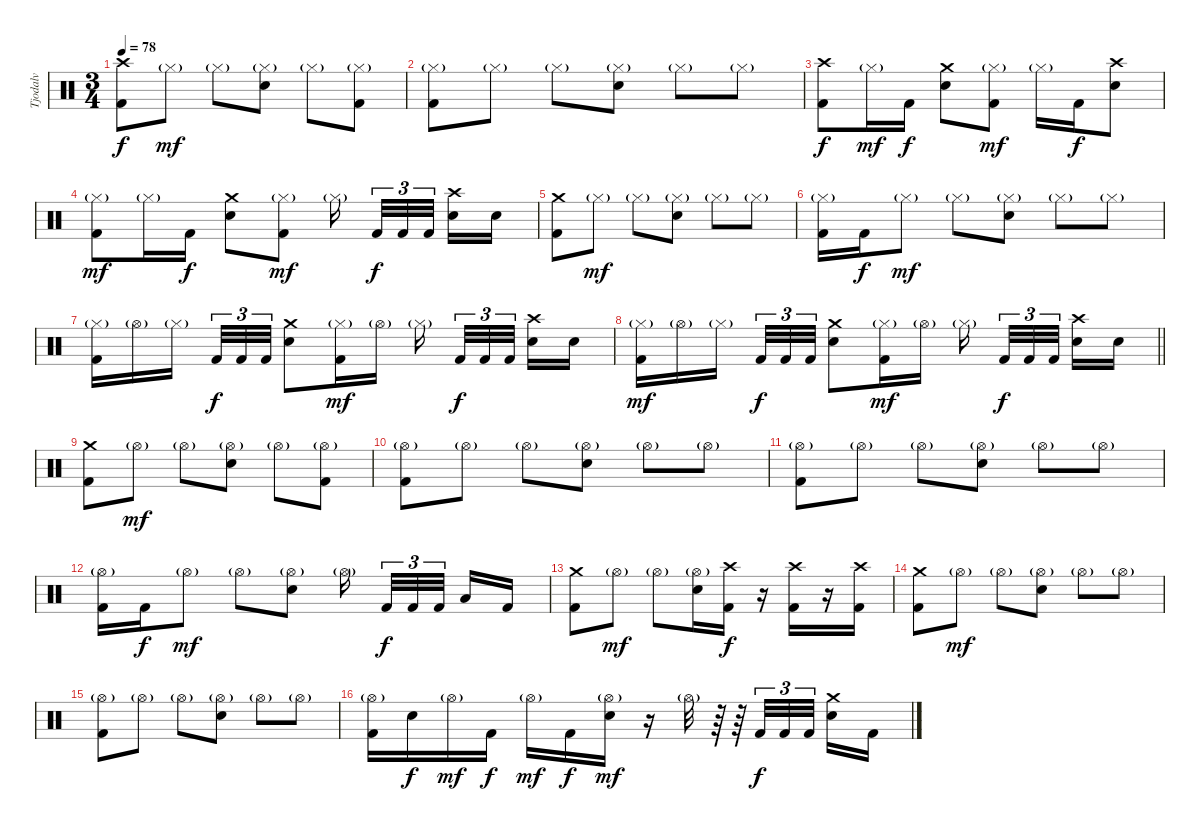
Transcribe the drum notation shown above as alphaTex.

\track ("Tjodalv" "Tjodalv") {instrument percussion}
\staff {score}
\articulation defaults
\ts (3 4)
\tempo 78
\clef neutral
\ks c
("Crash high (hit)" "Kick (hit) 2").8{dy f} "Hi-Hat (closed)"{g}.8{dy mf} "Hi-Hat (closed)"{g}.8 ("Hi-Hat (closed)"{g} "Electric Snare (hit)").8 "Hi-Hat (closed)"{g}.8 ("Hi-Hat (closed)"{g} "Kick (hit) 2").8 |
("Hi-Hat (closed)"{g} "Kick (hit) 2").8 "Hi-Hat (closed)"{g}.8 "Hi-Hat (closed)"{g}.8 ("Hi-Hat (closed)"{g} "Electric Snare (hit)").8 "Hi-Hat (closed)"{g}.8 "Hi-Hat (closed)"{g}.8 |
("Crash high (hit)" "Kick (hit) 2").8{dy f} "Hi-Hat (closed)"{g}.16{dy mf} "Kick (hit) 2".16{dy f} ("Crash medium (hit)" "Electric Snare (hit)").8 ("Hi-Hat (closed)"{g} "Kick (hit) 2").8{dy mf} "Hi-Hat (closed)"{g}.16 "Kick (hit) 2".16{dy f} ("Crash high (hit)" "Electric Snare (hit)").8 |
("Hi-Hat (closed)"{g} "Kick (hit) 2").8{dy mf} "Hi-Hat (closed)"{g}.16 "Kick (hit) 2".16{dy f} ("Crash medium (hit)" "Electric Snare (hit)").8 ("Hi-Hat (closed)"{g} "Kick (hit) 2").8{dy mf} "Hi-Hat (closed)"{g}.16{beam splitsecondary} "Kick (hit) 2".32{tu (3 2) dy f} "Kick (hit) 2".32{tu (3 2)} "Kick (hit) 2".32{tu (3 2) beam splitsecondary} ("Crash high (hit)" "Electric Snare (hit)").16 "Electric Snare (hit)".16 |
("Crash medium (hit)" "Kick (hit) 2").8 "Hi-Hat (closed)"{g}.8{dy mf} "Hi-Hat (closed)"{g}.8 ("Hi-Hat (closed)"{g} "Electric Snare (hit)").8 "Hi-Hat (closed)"{g}.8 "Hi-Hat (closed)"{g}.8 |
("Hi-Hat (closed)"{g} "Kick (hit) 2").16 "Kick (hit) 2".16{dy f} "Hi-Hat (closed)"{g}.8{dy mf} "Hi-Hat (closed)"{g}.8 ("Hi-Hat (closed)"{g} "Electric Snare (hit)").8 "Hi-Hat (closed)"{g}.8 "Hi-Hat (closed)"{g}.8 |
("Hi-Hat (closed)"{g} "Kick (hit) 2").16 "Hi-Hat (open)"{g}.16 "Hi-Hat (closed)"{g}.16{beam splitsecondary} "Kick (hit) 2".32{tu (3 2) dy f} "Kick (hit) 2".32{tu (3 2)} "Kick (hit) 2".32{tu (3 2)} ("Crash medium (hit)" "Electric Snare (hit)").8 ("Hi-Hat (closed)"{g} "Kick (hit) 2").16{dy mf} "Hi-Hat (open)"{g}.16 "Hi-Hat (closed)"{g}.16{beam splitsecondary} "Kick (hit) 2".32{tu (3 2) dy f} "Kick (hit) 2".32{tu (3 2)} "Kick (hit) 2".32{tu (3 2) beam splitsecondary} ("Crash high (hit)" "Electric Snare (hit)").16 "Electric Snare (hit)".16 |
\barLineRight lightlight
("Hi-Hat (closed)"{g} "Kick (hit) 2").16{dy mf} "Hi-Hat (open)"{g}.16 "Hi-Hat (closed)"{g}.16{beam splitsecondary} "Kick (hit) 2".32{tu (3 2) dy f} "Kick (hit) 2".32{tu (3 2)} "Kick (hit) 2".32{tu (3 2)} ("Crash medium (hit)" "Electric Snare (hit)").8 ("Hi-Hat (closed)"{g} "Kick (hit) 2").16{dy mf} "Hi-Hat (open)"{g}.16 "Hi-Hat (closed)"{g}.16{beam splitsecondary} "Kick (hit) 2".32{tu (3 2) dy f} "Kick (hit) 2".32{tu (3 2)} "Kick (hit) 2".32{tu (3 2) beam splitsecondary} ("Crash high (hit)" "Electric Snare (hit)").16 "Electric Snare (hit)".16 |
\section ("" "")
("Crash medium (hit)" "Kick (hit) 2").8 "Hi-Hat (open)"{g}.8{dy mf} "Hi-Hat (open)"{g}.8 ("Hi-Hat (open)"{g} "Electric Snare (hit)").8 "Hi-Hat (open)"{g}.8 ("Hi-Hat (open)"{g} "Kick (hit) 2").8 |
("Hi-Hat (open)"{g} "Kick (hit) 2").8 "Hi-Hat (open)"{g}.8 "Hi-Hat (open)"{g}.8 ("Hi-Hat (open)"{g} "Electric Snare (hit)").8 "Hi-Hat (open)"{g}.8 "Hi-Hat (open)"{g}.8 |
("Hi-Hat (open)"{g} "Kick (hit) 2").8 "Hi-Hat (open)"{g}.8 "Hi-Hat (open)"{g}.8 ("Hi-Hat (open)"{g} "Electric Snare (hit)").8 "Hi-Hat (open)"{g}.8 "Hi-Hat (open)"{g}.8 |
("Hi-Hat (open)"{g} "Kick (hit) 2").16 "Kick (hit) 2".16{dy f} "Hi-Hat (open)"{g}.8{dy mf} "Hi-Hat (open)"{g}.8 ("Hi-Hat (open)"{g} "Electric Snare (hit)").8 "Hi-Hat (open)"{g}.16{beam splitsecondary} "Kick (hit) 2".32{tu (3 2) dy f} "Kick (hit) 2".32{tu (3 2)} "Kick (hit) 2".32{tu (3 2) beam splitsecondary} "Low Tom (hit)".16 "Kick (hit) 2".16 |
("Crash medium (hit)" "Kick (hit) 2").8 "Hi-Hat (open)"{g}.8{dy mf} "Hi-Hat (open)"{g}.8 ("Hi-Hat (open)"{g} "Electric Snare (hit)").16 ("Crash high (hit)" "Kick (hit) 2").16{dy f} r.16 ("Crash high (hit)" "Kick (hit) 2").16 r.16 ("Crash high (hit)" "Kick (hit) 2").16 |
("Crash medium (hit)" "Kick (hit) 2").8 "Hi-Hat (open)"{g}.8{dy mf} "Hi-Hat (open)"{g}.8 ("Hi-Hat (open)"{g} "Electric Snare (hit)").8 "Hi-Hat (open)"{g}.8 "Hi-Hat (open)"{g}.8 |
("Hi-Hat (open)"{g} "Kick (hit) 2").8 "Hi-Hat (open)"{g}.8 "Hi-Hat (open)"{g}.8 ("Hi-Hat (open)"{g} "Electric Snare (hit)").8 "Hi-Hat (open)"{g}.8 "Hi-Hat (open)"{g}.8 |
("Hi-Hat (open)"{g} "Kick (hit) 2").16 "Electric Snare (hit)".16{dy f} "Hi-Hat (open)"{g}.16{dy mf} "Kick (hit) 2".16{dy f} "Hi-Hat (open)"{g}.16{dy mf} "Kick (hit) 2".16{dy f} ("Hi-Hat (open)"{g} "Electric Snare (hit)").16{dy mf} r.16 "Hi-Hat (open)"{g}.32 r.64 r.64 "Kick (hit) 2".32{tu (3 2) dy f} "Kick (hit) 2".32{tu (3 2)} "Kick (hit) 2".32{tu (3 2) beam splitsecondary} ("Crash medium (hit)" "Electric Snare (hit)").16 "Kick (hit) 2".16
